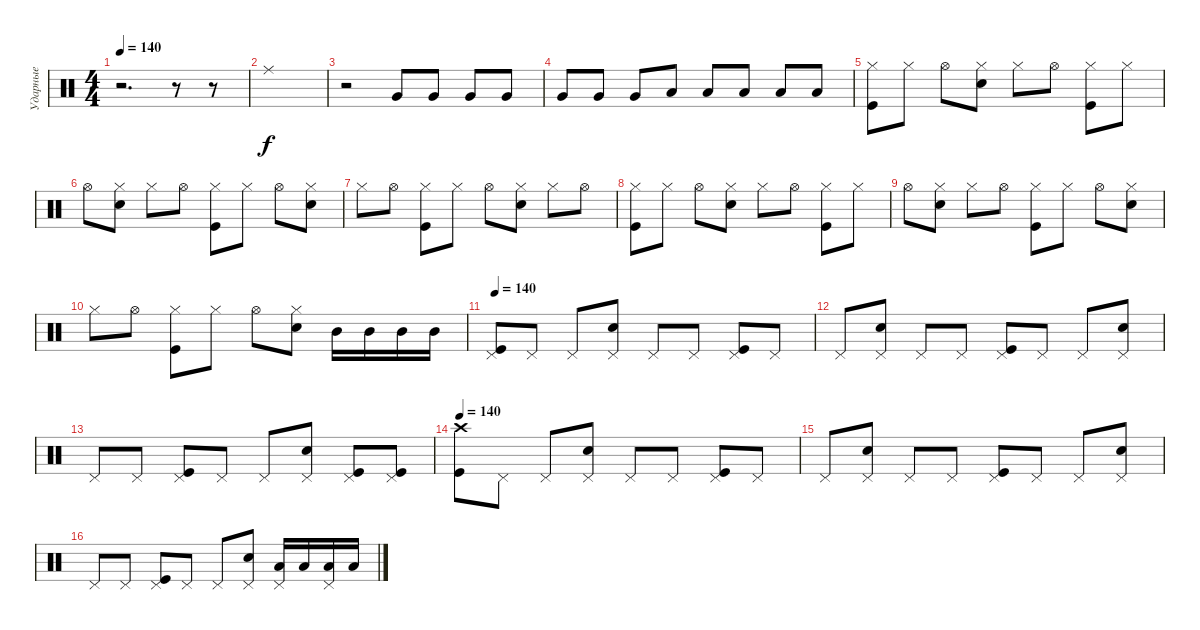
\track ("Ударные" "Ударные") {instrument percussion}
\staff {score}
\articulation defaults
\ts (4 4)
\tempo 140
\clef neutral
\ks c
r.2{d dy f} r.8 r.8 |
"Ride (middle)".1 |
r.2 "Very Low Tom (hit)".8 "Very Low Tom (hit)".8 "Very Low Tom (hit)".8 "Very Low Tom (hit)".8 |
"Very Low Tom (hit)".8 "Very Low Tom (hit)".8 "Very Low Tom (hit)".8 "Low Tom (hit)".8 "Low Tom (hit)".8 "Low Tom (hit)".8 "Low Tom (hit)".8 "Low Tom (hit)".8 |
("Kick (hit)" "Hi-Hat (closed)").8 "Hi-Hat (closed)".8 "Hi-Hat (open)".8 ("Snare (hit) 2" "Hi-Hat (closed)").8 "Hi-Hat (closed)".8 "Hi-Hat (open)".8 ("Kick (hit)" "Hi-Hat (closed)").8 "Hi-Hat (closed)".8 |
"Hi-Hat (open)".8 ("Snare (hit) 2" "Hi-Hat (closed)").8 "Hi-Hat (closed)".8 "Hi-Hat (open)".8 ("Kick (hit)" "Hi-Hat (closed)").8 "Hi-Hat (closed)".8 "Hi-Hat (open)".8 ("Snare (hit) 2" "Hi-Hat (closed)").8 |
"Hi-Hat (closed)".8 "Hi-Hat (open)".8 ("Kick (hit)" "Hi-Hat (closed)").8 "Hi-Hat (closed)".8 "Hi-Hat (open)".8 ("Snare (hit) 2" "Hi-Hat (closed)").8 "Hi-Hat (closed)".8 "Hi-Hat (open)".8 |
("Kick (hit)" "Hi-Hat (closed)").8 "Hi-Hat (closed)".8 "Hi-Hat (open)".8 ("Snare (hit) 2" "Hi-Hat (closed)").8 "Hi-Hat (closed)".8 "Hi-Hat (open)".8 ("Kick (hit)" "Hi-Hat (closed)").8 "Hi-Hat (closed)".8 |
"Hi-Hat (open)".8 ("Snare (hit) 2" "Hi-Hat (closed)").8 "Hi-Hat (closed)".8 "Hi-Hat (open)".8 ("Kick (hit)" "Hi-Hat (closed)").8 "Hi-Hat (closed)".8 "Hi-Hat (open)".8 ("Snare (hit) 2" "Hi-Hat (closed)").8 |
"Hi-Hat (closed)".8 "Hi-Hat (open)".8 ("Kick (hit)" "Hi-Hat (closed)").8 "Hi-Hat (closed)".8 "Hi-Hat (open)".8 ("Snare (hit) 2" "Hi-Hat (closed)").8 "Mid Tom (hit)".16 "Mid Tom (hit)".16 "Mid Tom (hit)".16 "Mid Tom (hit)".16 |
\tempo 140
("Kick (hit)" "Pedal Hi-Hat (hit)").8 "Pedal Hi-Hat (hit)".8 "Pedal Hi-Hat (hit)".8 ("Snare (hit) 2" "Pedal Hi-Hat (hit)").8 "Pedal Hi-Hat (hit)".8 "Pedal Hi-Hat (hit)".8 ("Kick (hit)" "Pedal Hi-Hat (hit)").8 "Pedal Hi-Hat (hit)".8 |
"Pedal Hi-Hat (hit)".8 ("Snare (hit) 2" "Pedal Hi-Hat (hit)").8 "Pedal Hi-Hat (hit)".8 "Pedal Hi-Hat (hit)".8 ("Kick (hit)" "Pedal Hi-Hat (hit)").8 "Pedal Hi-Hat (hit)".8 "Pedal Hi-Hat (hit)".8 ("Snare (hit) 2" "Pedal Hi-Hat (hit)").8 |
"Pedal Hi-Hat (hit)".8 "Pedal Hi-Hat (hit)".8 ("Kick (hit)" "Pedal Hi-Hat (hit)").8 "Pedal Hi-Hat (hit)".8 "Pedal Hi-Hat (hit)".8 ("Snare (hit) 2" "Pedal Hi-Hat (hit)").8 ("Kick (hit)" "Pedal Hi-Hat (hit)").8 ("Kick (hit)" "Pedal Hi-Hat (hit)").8 |
\tempo 140
("Kick (hit)" "Crash high (hit)").8 "Pedal Hi-Hat (hit)".8 "Pedal Hi-Hat (hit)".8 ("Snare (hit) 2" "Pedal Hi-Hat (hit)").8 "Pedal Hi-Hat (hit)".8 "Pedal Hi-Hat (hit)".8 ("Kick (hit)" "Pedal Hi-Hat (hit)").8 "Pedal Hi-Hat (hit)".8 |
"Pedal Hi-Hat (hit)".8 ("Snare (hit) 2" "Pedal Hi-Hat (hit)").8 "Pedal Hi-Hat (hit)".8 "Pedal Hi-Hat (hit)".8 ("Kick (hit)" "Pedal Hi-Hat (hit)").8 "Pedal Hi-Hat (hit)".8 "Pedal Hi-Hat (hit)".8 ("Snare (hit) 2" "Pedal Hi-Hat (hit)").8 |
"Pedal Hi-Hat (hit)".8 "Pedal Hi-Hat (hit)".8 ("Kick (hit)" "Pedal Hi-Hat (hit)").8 "Pedal Hi-Hat (hit)".8 "Pedal Hi-Hat (hit)".8 ("Snare (hit) 2" "Pedal Hi-Hat (hit)").8 ("Low Tom (hit)" "Pedal Hi-Hat (hit)").16 "Low Tom (hit)".16 ("Low Tom (hit)" "Pedal Hi-Hat (hit)").16 "Low Tom (hit)".16
